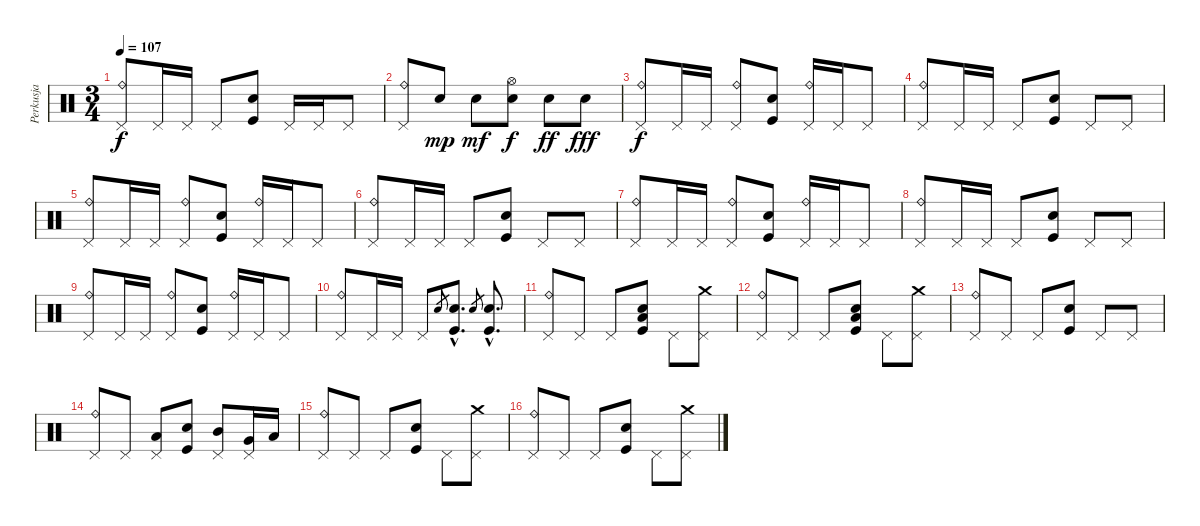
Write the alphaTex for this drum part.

\track ("Perkusja" "Perkusja") {instrument percussion}
\staff {score}
\articulation defaults
\ts (3 4)
\tempo 107
\clef neutral
\ks c
("Pedal Hi-Hat (hit)" "Ride (bell)").8{dy f} "Pedal Hi-Hat (hit)".16 "Pedal Hi-Hat (hit)".16 "Pedal Hi-Hat (hit)".8 ("Electric Snare (hit)" "Kick (hit)").8 "Pedal Hi-Hat (hit)".16 "Pedal Hi-Hat (hit)".16 "Pedal Hi-Hat (hit)".8 |
("Pedal Hi-Hat (hit)" "Ride (bell)").8 "Electric Snare (hit)".8{dy mp} "Electric Snare (hit)".8{dy mf} ("Electric Snare (hit)" "Hi-Hat (open)").8{dy f} "Electric Snare (hit)".8{dy ff} "Electric Snare (hit)".8{dy fff} |
("Pedal Hi-Hat (hit)" "Ride (bell)").8{dy f} "Pedal Hi-Hat (hit)".16 "Pedal Hi-Hat (hit)".16 ("Pedal Hi-Hat (hit)" "Ride (bell)").8 ("Electric Snare (hit)" "Kick (hit)").8 ("Pedal Hi-Hat (hit)" "Ride (bell)").16 "Pedal Hi-Hat (hit)".16 "Pedal Hi-Hat (hit)".8 |
("Pedal Hi-Hat (hit)" "Ride (bell)").8 "Pedal Hi-Hat (hit)".16 "Pedal Hi-Hat (hit)".16 "Pedal Hi-Hat (hit)".8 ("Electric Snare (hit)" "Kick (hit)").8 "Pedal Hi-Hat (hit)".8 "Pedal Hi-Hat (hit)".8 |
("Pedal Hi-Hat (hit)" "Ride (bell)").8 "Pedal Hi-Hat (hit)".16 "Pedal Hi-Hat (hit)".16 ("Pedal Hi-Hat (hit)" "Ride (bell)").8 ("Electric Snare (hit)" "Kick (hit)").8 ("Pedal Hi-Hat (hit)" "Ride (bell)").16 "Pedal Hi-Hat (hit)".16 "Pedal Hi-Hat (hit)".8 |
("Pedal Hi-Hat (hit)" "Ride (bell)").8 "Pedal Hi-Hat (hit)".16 "Pedal Hi-Hat (hit)".16 "Pedal Hi-Hat (hit)".8 ("Electric Snare (hit)" "Kick (hit)").8 "Pedal Hi-Hat (hit)".8 "Pedal Hi-Hat (hit)".8 |
("Pedal Hi-Hat (hit)" "Ride (bell)").8 "Pedal Hi-Hat (hit)".16 "Pedal Hi-Hat (hit)".16 ("Pedal Hi-Hat (hit)" "Ride (bell)").8 ("Electric Snare (hit)" "Kick (hit)").8 ("Pedal Hi-Hat (hit)" "Ride (bell)").16 "Pedal Hi-Hat (hit)".16 "Pedal Hi-Hat (hit)".8 |
("Pedal Hi-Hat (hit)" "Ride (bell)").8 "Pedal Hi-Hat (hit)".16 "Pedal Hi-Hat (hit)".16 "Pedal Hi-Hat (hit)".8 ("Electric Snare (hit)" "Kick (hit)").8 "Pedal Hi-Hat (hit)".8 "Pedal Hi-Hat (hit)".8 |
("Pedal Hi-Hat (hit)" "Ride (bell)").8 "Pedal Hi-Hat (hit)".16 "Pedal Hi-Hat (hit)".16 ("Pedal Hi-Hat (hit)" "Ride (bell)").8 ("Electric Snare (hit)" "Kick (hit)").8 ("Pedal Hi-Hat (hit)" "Ride (bell)").16 "Pedal Hi-Hat (hit)".16 "Pedal Hi-Hat (hit)".8 |
("Pedal Hi-Hat (hit)" "Ride (bell)").8 "Pedal Hi-Hat (hit)".16 "Pedal Hi-Hat (hit)".16 "Pedal Hi-Hat (hit)".8 "Electric Snare (hit)".8{gr} ("Electric Snare (hit)"{hac} "Kick (hit)"{hac}).8{d} "Electric Snare (hit)".8{gr} ("Electric Snare (hit)"{hac} "Kick (hit)"{hac}).8{d} |
("Pedal Hi-Hat (hit)" "Ride (bell)").8 "Pedal Hi-Hat (hit)".8 "Pedal Hi-Hat (hit)".8 ("Electric Snare (hit)" "Kick (hit)" "Low Tom (hit)").8 "Pedal Hi-Hat (hit)".8 ("Pedal Hi-Hat (hit)" "Crash medium (hit)").8 |
("Pedal Hi-Hat (hit)" "Ride (bell)").8 "Pedal Hi-Hat (hit)".8 "Pedal Hi-Hat (hit)".8 ("Electric Snare (hit)" "Kick (hit)" "Low Tom (hit)").8 "Pedal Hi-Hat (hit)".8 ("Pedal Hi-Hat (hit)" "Crash medium (hit)").8 |
("Pedal Hi-Hat (hit)" "Ride (bell)").8 "Pedal Hi-Hat (hit)".8 "Pedal Hi-Hat (hit)".8 ("Electric Snare (hit)" "Kick (hit)").8 "Pedal Hi-Hat (hit)".8 "Pedal Hi-Hat (hit)".8 |
("Pedal Hi-Hat (hit)" "Ride (bell)").8 "Pedal Hi-Hat (hit)".8 ("Pedal Hi-Hat (hit)" "Low Tom (hit)").8 ("Electric Snare (hit)" "Kick (hit)").8 ("Pedal Hi-Hat (hit)" "Mid Tom (hit)").8 ("Pedal Hi-Hat (hit)" "Very Low Tom (hit)").16 "Low Floor Tom (hit)".16 |
("Pedal Hi-Hat (hit)" "Ride (bell)").8 "Pedal Hi-Hat (hit)".8 "Pedal Hi-Hat (hit)".8 ("Electric Snare (hit)" "Kick (hit)").8 "Pedal Hi-Hat (hit)".8 ("Pedal Hi-Hat (hit)" "Crash medium (hit)").8 |
("Pedal Hi-Hat (hit)" "Ride (bell)").8 "Pedal Hi-Hat (hit)".8 "Pedal Hi-Hat (hit)".8 ("Electric Snare (hit)" "Kick (hit)").8 "Pedal Hi-Hat (hit)".8 ("Pedal Hi-Hat (hit)" "Crash medium (hit)").8
